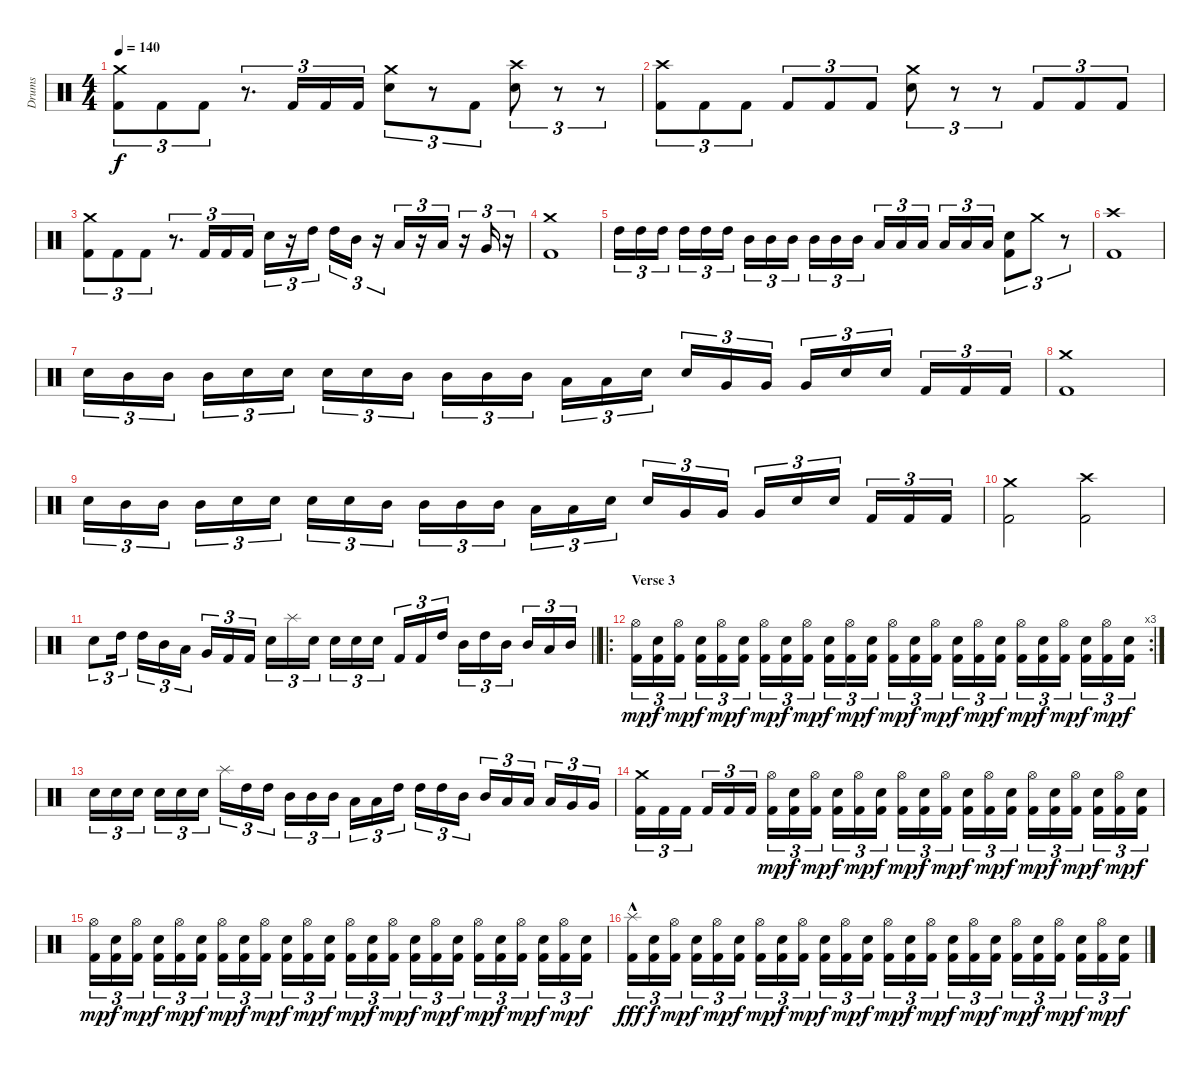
\track ("Drums" "Drums") {instrument percussion}
\staff {score}
\articulation defaults
\ts (4 4)
\tempo 140
\clef neutral
\ks c
("Crash medium (hit)" "Kick (hit) 2").8{tu (3 2) dy f} "Kick (hit) 2".8{tu (3 2)} "Kick (hit) 2".8{tu (3 2)} r.8{d tu (3 2)} "Kick (hit) 2".16{tu (3 2)} "Kick (hit) 2".16{tu (3 2)} "Kick (hit) 2".16{tu (3 2)} ("Crash medium (hit)" "Electric Snare (hit)").8{tu (3 2)} r.8{tu (3 2)} "Kick (hit) 2".8{tu (3 2)} ("Crash high (hit)" "Electric Snare (hit)").8{tu (3 2)} r.8{tu (3 2)} r.8{tu (3 2)} |
("Crash high (hit)" "Kick (hit) 2").8{tu (3 2)} "Kick (hit) 2".8{tu (3 2)} "Kick (hit) 2".8{tu (3 2)} "Kick (hit) 2".8{tu (3 2)} "Kick (hit) 2".8{tu (3 2)} "Kick (hit) 2".8{tu (3 2)} ("Crash medium (hit)" "Electric Snare (hit)").8{tu (3 2)} r.8{tu (3 2)} r.8{tu (3 2)} "Kick (hit) 2".8{tu (3 2)} "Kick (hit) 2".8{tu (3 2)} "Kick (hit) 2".8{tu (3 2)} |
("Crash medium (hit)" "Kick (hit) 2").8{tu (3 2)} "Kick (hit) 2".8{tu (3 2)} "Kick (hit) 2".8{tu (3 2)} r.8{d tu (3 2)} "Kick (hit) 2".16{tu (3 2)} "Kick (hit) 2".16{tu (3 2)} "Kick (hit) 2".16{tu (3 2)} "Electric Snare (hit)".16{tu (3 2)} r.16{tu (3 2)} "High Tom (hit)".16{tu (3 2) beam splitsecondary} "High Tom (hit)".16{tu (3 2)} "Mid Tom (hit)".16{tu (3 2)} r.16{tu (3 2)} "Low Tom (hit)".16{tu (3 2)} r.16{tu (3 2)} "Low Tom (hit)".16{tu (3 2)} r.16{tu (3 2)} "Very Low Tom (hit)".16{tu (3 2)} r.16{tu (3 2)} |
("Crash medium (hit)" "Kick (hit) 2").1 |
"High Tom (hit)".16{tu (3 2)} "High Tom (hit)".16{tu (3 2)} "High Tom (hit)".16{tu (3 2) beam splitsecondary} "High Tom (hit)".16{tu (3 2)} "High Tom (hit)".16{tu (3 2)} "High Tom (hit)".16{tu (3 2)} "Mid Tom (hit)".16{tu (3 2)} "Mid Tom (hit)".16{tu (3 2)} "Mid Tom (hit)".16{tu (3 2) beam splitsecondary} "Mid Tom (hit)".16{tu (3 2)} "Mid Tom (hit)".16{tu (3 2)} "Mid Tom (hit)".16{tu (3 2)} "Low Tom (hit)".16{tu (3 2)} "Low Tom (hit)".16{tu (3 2)} "Low Tom (hit)".16{tu (3 2) beam splitsecondary} "Low Tom (hit)".16{tu (3 2)} "Low Tom (hit)".16{tu (3 2)} "Low Tom (hit)".16{tu (3 2)} ("Electric Snare (hit)" "Kick (hit) 2").8{tu (3 2)} "Crash medium (hit)".8{tu (3 2)} r.8{tu (3 2)} |
("Crash high (hit)" "Kick (hit) 2").1 |
"Electric Snare (hit)".16{tu (3 2)} "Mid Tom (hit)".16{tu (3 2)} "Mid Tom (hit)".16{tu (3 2) beam splitsecondary} "Mid Tom (hit)".16{tu (3 2)} "Electric Snare (hit)".16{tu (3 2)} "Electric Snare (hit)".16{tu (3 2)} "Electric Snare (hit)".16{tu (3 2)} "Electric Snare (hit)".16{tu (3 2)} "Mid Tom (hit)".16{tu (3 2) beam splitsecondary} "Mid Tom (hit)".16{tu (3 2)} "Mid Tom (hit)".16{tu (3 2)} "Mid Tom (hit)".16{tu (3 2)} "Low Tom (hit)".16{tu (3 2)} "Low Tom (hit)".16{tu (3 2)} "Electric Snare (hit)".16{tu (3 2) beam splitsecondary} "Electric Snare (hit)".16{tu (3 2)} "Very Low Tom (hit)".16{tu (3 2)} "Very Low Tom (hit)".16{tu (3 2)} "Very Low Tom (hit)".16{tu (3 2)} "Electric Snare (hit)".16{tu (3 2)} "Electric Snare (hit)".16{tu (3 2) beam splitsecondary} "Kick (hit) 2".16{tu (3 2)} "Kick (hit) 2".16{tu (3 2)} "Kick (hit) 2".16{tu (3 2)} |
("Crash medium (hit)" "Kick (hit) 2").1 |
"Electric Snare (hit)".16{tu (3 2)} "Mid Tom (hit)".16{tu (3 2)} "Mid Tom (hit)".16{tu (3 2) beam splitsecondary} "Mid Tom (hit)".16{tu (3 2)} "Electric Snare (hit)".16{tu (3 2)} "Electric Snare (hit)".16{tu (3 2)} "Electric Snare (hit)".16{tu (3 2)} "Electric Snare (hit)".16{tu (3 2)} "Mid Tom (hit)".16{tu (3 2) beam splitsecondary} "Mid Tom (hit)".16{tu (3 2)} "Mid Tom (hit)".16{tu (3 2)} "Mid Tom (hit)".16{tu (3 2)} "Low Tom (hit)".16{tu (3 2)} "Low Tom (hit)".16{tu (3 2)} "Electric Snare (hit)".16{tu (3 2) beam splitsecondary} "Electric Snare (hit)".16{tu (3 2)} "Very Low Tom (hit)".16{tu (3 2)} "Very Low Tom (hit)".16{tu (3 2)} "Very Low Tom (hit)".16{tu (3 2)} "Electric Snare (hit)".16{tu (3 2)} "Electric Snare (hit)".16{tu (3 2) beam splitsecondary} "Kick (hit) 2".16{tu (3 2)} "Kick (hit) 2".16{tu (3 2)} "Kick (hit) 2".16{tu (3 2)} |
("Crash medium (hit)" "Kick (hit) 2").2 ("Crash high (hit)" "Kick (hit) 2").2 |
\barLineRight lightlight "Electric Snare (hit)".8{tu (3 2)} "High Tom (hit)".16{tu (3 2) beam splitsecondary} "High Tom (hit)".16{tu (3 2)} "Mid Tom (hit)".16{tu (3 2)} "Low Tom (hit)".16{tu (3 2)} "Very Low Tom (hit)".16{tu (3 2)} "Kick (hit) 2".16{tu (3 2)} "Kick (hit) 2".16{tu (3 2) beam splitsecondary} "Electric Snare (hit)".16{tu (3 2)} "Splash (hit)".16{tu (3 2)} "Electric Snare (hit)".16{tu (3 2)} "Electric Snare (hit)".16{tu (3 2)} "Electric Snare (hit)".16{tu (3 2)} "Electric Snare (hit)".16{tu (3 2) beam splitsecondary} "Kick (hit) 2".16{tu (3 2)} "Kick (hit) 2".16{tu (3 2)} "High Tom (hit)".16{tu (3 2)} "Mid Tom (hit)".16{tu (3 2)} "High Tom (hit)".16{tu (3 2)} "Mid Tom (hit)".16{tu (3 2) beam splitsecondary} "Mid Tom (hit)".16{tu (3 2)} "Low Tom (hit)".16{tu (3 2)} "Mid Tom (hit)".16{tu (3 2)}
|
\ro
\rc 3
\section ("" "Verse 3")
("Hi-Hat (open)" "Kick (hit) 2").16{tu (3 2) dy mp} ("Electric Snare (hit)" "Kick (hit) 2").16{tu (3 2) dy f} ("Hi-Hat (open)" "Kick (hit) 2").16{tu (3 2) dy mp beam splitsecondary} ("Electric Snare (hit)" "Kick (hit) 2").16{tu (3 2) dy f} ("Hi-Hat (open)" "Kick (hit) 2").16{tu (3 2) dy mp} ("Electric Snare (hit)" "Kick (hit) 2").16{tu (3 2) dy f} ("Hi-Hat (open)" "Kick (hit) 2").16{tu (3 2) dy mp} ("Electric Snare (hit)" "Kick (hit) 2").16{tu (3 2) dy f} ("Hi-Hat (open)" "Kick (hit) 2").16{tu (3 2) dy mp beam splitsecondary} ("Electric Snare (hit)" "Kick (hit) 2").16{tu (3 2) dy f} ("Hi-Hat (open)" "Kick (hit) 2").16{tu (3 2) dy mp} ("Electric Snare (hit)" "Kick (hit) 2").16{tu (3 2) dy f} ("Hi-Hat (open)" "Kick (hit) 2").16{tu (3 2) dy mp} ("Electric Snare (hit)" "Kick (hit) 2").16{tu (3 2) dy f} ("Hi-Hat (open)" "Kick (hit) 2").16{tu (3 2) dy mp beam splitsecondary} ("Electric Snare (hit)" "Kick (hit) 2").16{tu (3 2) dy f} ("Hi-Hat (open)" "Kick (hit) 2").16{tu (3 2) dy mp} ("Electric Snare (hit)" "Kick (hit) 2").16{tu (3 2) dy f} ("Hi-Hat (open)" "Kick (hit) 2").16{tu (3 2) dy mp} ("Electric Snare (hit)" "Kick (hit) 2").16{tu (3 2) dy f} ("Hi-Hat (open)" "Kick (hit) 2").16{tu (3 2) dy mp beam splitsecondary} ("Electric Snare (hit)" "Kick (hit) 2").16{tu (3 2) dy f} ("Hi-Hat (open)" "Kick (hit) 2").16{tu (3 2) dy mp} ("Electric Snare (hit)" "Kick (hit) 2").16{tu (3 2) dy f} |
"Electric Snare (hit)".16{tu (3 2)} "Electric Snare (hit)".16{tu (3 2)} "Electric Snare (hit)".16{tu (3 2) beam splitsecondary} "Electric Snare (hit)".16{tu (3 2)} "Electric Snare (hit)".16{tu (3 2)} "Electric Snare (hit)".16{tu (3 2)} "Splash (hit)".16{tu (3 2)} "High Tom (hit)".16{tu (3 2)} "High Tom (hit)".16{tu (3 2) beam splitsecondary} "Mid Tom (hit)".16{tu (3 2)} "Mid Tom (hit)".16{tu (3 2)} "Mid Tom (hit)".16{tu (3 2)} "Low Tom (hit)".16{tu (3 2)} "Low Tom (hit)".16{tu (3 2)} "High Tom (hit)".16{tu (3 2) beam splitsecondary} "High Tom (hit)".16{tu (3 2)} "High Tom (hit)".16{tu (3 2)} "Mid Tom (hit)".16{tu (3 2)} "Mid Tom (hit)".16{tu (3 2)} "Low Tom (hit)".16{tu (3 2)} "Low Tom (hit)".16{tu (3 2) beam splitsecondary} "Low Tom (hit)".16{tu (3 2)} "Very Low Tom (hit)".16{tu (3 2)} "Very Low Tom (hit)".16{tu (3 2)} |
("Crash medium (hit)" "Kick (hit) 2").16{tu (3 2)} "Kick (hit) 2".16{tu (3 2)} "Kick (hit) 2".16{tu (3 2) beam splitsecondary} "Kick (hit) 2".16{tu (3 2)} "Kick (hit) 2".16{tu (3 2)} "Kick (hit) 2".16{tu (3 2)} ("Hi-Hat (open)" "Kick (hit) 2").16{tu (3 2) dy mp} ("Electric Snare (hit)" "Kick (hit) 2").16{tu (3 2) dy f} ("Hi-Hat (open)" "Kick (hit) 2").16{tu (3 2) dy mp beam splitsecondary} ("Electric Snare (hit)" "Kick (hit) 2").16{tu (3 2) dy f} ("Hi-Hat (open)" "Kick (hit) 2").16{tu (3 2) dy mp} ("Electric Snare (hit)" "Kick (hit) 2").16{tu (3 2) dy f} ("Hi-Hat (open)" "Kick (hit) 2").16{tu (3 2) dy mp} ("Electric Snare (hit)" "Kick (hit) 2").16{tu (3 2) dy f} ("Hi-Hat (open)" "Kick (hit) 2").16{tu (3 2) dy mp beam splitsecondary} ("Electric Snare (hit)" "Kick (hit) 2").16{tu (3 2) dy f} ("Hi-Hat (open)" "Kick (hit) 2").16{tu (3 2) dy mp} ("Electric Snare (hit)" "Kick (hit) 2").16{tu (3 2) dy f} ("Hi-Hat (open)" "Kick (hit) 2").16{tu (3 2) dy mp} ("Electric Snare (hit)" "Kick (hit) 2").16{tu (3 2) dy f} ("Hi-Hat (open)" "Kick (hit) 2").16{tu (3 2) dy mp beam splitsecondary} ("Electric Snare (hit)" "Kick (hit) 2").16{tu (3 2) dy f} ("Hi-Hat (open)" "Kick (hit) 2").16{tu (3 2) dy mp} ("Electric Snare (hit)" "Kick (hit) 2").16{tu (3 2) dy f} |
("Hi-Hat (open)" "Kick (hit) 2").16{tu (3 2) dy mp} ("Electric Snare (hit)" "Kick (hit) 2").16{tu (3 2) dy f} ("Hi-Hat (open)" "Kick (hit) 2").16{tu (3 2) dy mp beam splitsecondary} ("Electric Snare (hit)" "Kick (hit) 2").16{tu (3 2) dy f} ("Hi-Hat (open)" "Kick (hit) 2").16{tu (3 2) dy mp} ("Electric Snare (hit)" "Kick (hit) 2").16{tu (3 2) dy f} ("Hi-Hat (open)" "Kick (hit) 2").16{tu (3 2) dy mp} ("Electric Snare (hit)" "Kick (hit) 2").16{tu (3 2) dy f} ("Hi-Hat (open)" "Kick (hit) 2").16{tu (3 2) dy mp beam splitsecondary} ("Electric Snare (hit)" "Kick (hit) 2").16{tu (3 2) dy f} ("Hi-Hat (open)" "Kick (hit) 2").16{tu (3 2) dy mp} ("Electric Snare (hit)" "Kick (hit) 2").16{tu (3 2) dy f} ("Hi-Hat (open)" "Kick (hit) 2").16{tu (3 2) dy mp} ("Electric Snare (hit)" "Kick (hit) 2").16{tu (3 2) dy f} ("Hi-Hat (open)" "Kick (hit) 2").16{tu (3 2) dy mp beam splitsecondary} ("Electric Snare (hit)" "Kick (hit) 2").16{tu (3 2) dy f} ("Hi-Hat (open)" "Kick (hit) 2").16{tu (3 2) dy mp} ("Electric Snare (hit)" "Kick (hit) 2").16{tu (3 2) dy f} ("Hi-Hat (open)" "Kick (hit) 2").16{tu (3 2) dy mp} ("Electric Snare (hit)" "Kick (hit) 2").16{tu (3 2) dy f} ("Hi-Hat (open)" "Kick (hit) 2").16{tu (3 2) dy mp beam splitsecondary} ("Electric Snare (hit)" "Kick (hit) 2").16{tu (3 2) dy f} ("Hi-Hat (open)" "Kick (hit) 2").16{tu (3 2) dy mp} ("Electric Snare (hit)" "Kick (hit) 2").16{tu (3 2) dy f} |
("Splash (hit)"{hac} "Kick (hit) 2").16{tu (3 2) dy fff} ("Electric Snare (hit)" "Kick (hit) 2").16{tu (3 2) dy f} ("Hi-Hat (open)" "Kick (hit) 2").16{tu (3 2) dy mp beam splitsecondary} ("Electric Snare (hit)" "Kick (hit) 2").16{tu (3 2) dy f} ("Hi-Hat (open)" "Kick (hit) 2").16{tu (3 2) dy mp} ("Electric Snare (hit)" "Kick (hit) 2").16{tu (3 2) dy f} ("Hi-Hat (open)" "Kick (hit) 2").16{tu (3 2) dy mp} ("Electric Snare (hit)" "Kick (hit) 2").16{tu (3 2) dy f} ("Hi-Hat (open)" "Kick (hit) 2").16{tu (3 2) dy mp beam splitsecondary} ("Electric Snare (hit)" "Kick (hit) 2").16{tu (3 2) dy f} ("Hi-Hat (open)" "Kick (hit) 2").16{tu (3 2) dy mp} ("Electric Snare (hit)" "Kick (hit) 2").16{tu (3 2) dy f} ("Hi-Hat (open)" "Kick (hit) 2").16{tu (3 2) dy mp} ("Electric Snare (hit)" "Kick (hit) 2").16{tu (3 2) dy f} ("Hi-Hat (open)" "Kick (hit) 2").16{tu (3 2) dy mp beam splitsecondary} ("Electric Snare (hit)" "Kick (hit) 2").16{tu (3 2) dy f} ("Hi-Hat (open)" "Kick (hit) 2").16{tu (3 2) dy mp} ("Electric Snare (hit)" "Kick (hit) 2").16{tu (3 2) dy f} ("Hi-Hat (open)" "Kick (hit) 2").16{tu (3 2) dy mp} ("Electric Snare (hit)" "Kick (hit) 2").16{tu (3 2) dy f} ("Hi-Hat (open)" "Kick (hit) 2").16{tu (3 2) dy mp beam splitsecondary} ("Electric Snare (hit)" "Kick (hit) 2").16{tu (3 2) dy f} ("Hi-Hat (open)" "Kick (hit) 2").16{tu (3 2) dy mp} ("Electric Snare (hit)" "Kick (hit) 2").16{tu (3 2) dy f}
